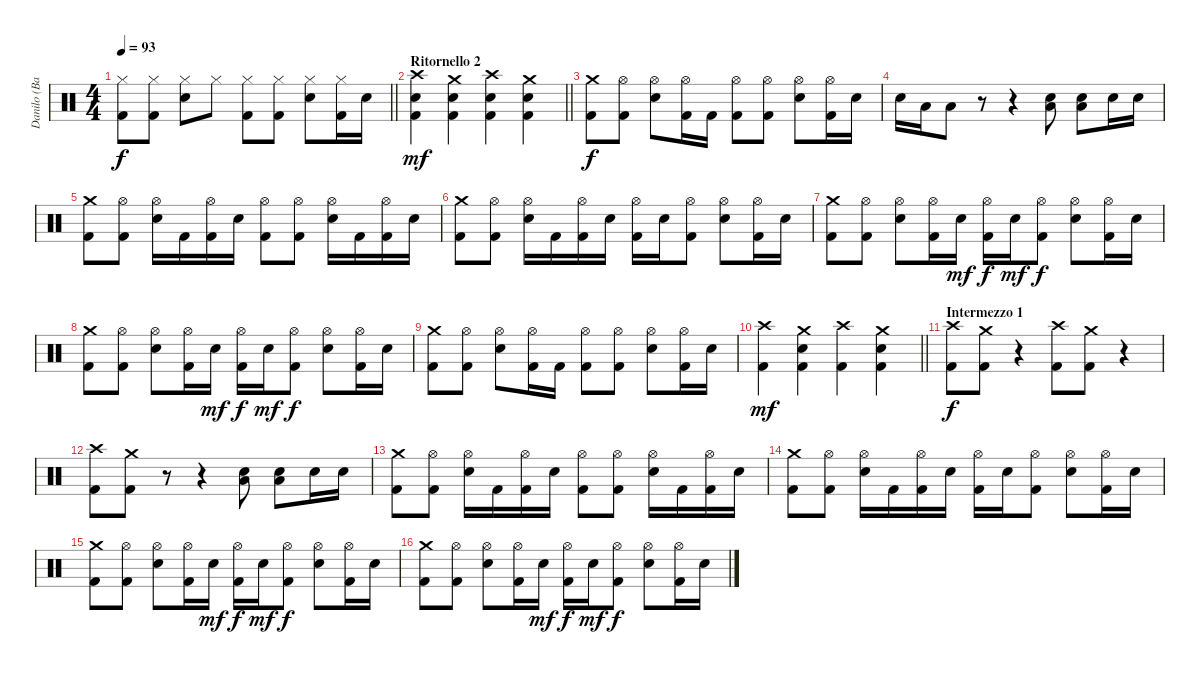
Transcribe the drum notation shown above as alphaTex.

\track ("Danilo (Batteria)" "Danilo (Ba") {instrument percussion}
\staff {score}
\articulation defaults
\ts (4 4)
\tempo 93
\clef neutral
\barLineRight lightlight
\ks c
("Hi-Hat (closed)" "Kick (hit) 2").8{dy f} ("Hi-Hat (closed)" "Kick (hit) 2").8 ("Hi-Hat (closed)" "Electric Snare (hit)").8 "Hi-Hat (closed)".8 ("Hi-Hat (closed)" "Kick (hit) 2").8 ("Hi-Hat (closed)" "Kick (hit) 2").8 ("Hi-Hat (closed)" "Electric Snare (hit)").8 ("Hi-Hat (closed)" "Kick (hit) 2").16 "Electric Snare (hit)".16 |
\section ("" "Ritornello 2")
\barLineRight lightlight
("Crash high (hit)" "Electric Snare (hit)" "Kick (hit) 2").4{dy mf} ("Crash medium (hit)" "Electric Snare (hit)" "Kick (hit) 2").4 ("Crash high (hit)" "Electric Snare (hit)" "Kick (hit) 2").4 ("Crash medium (hit)" "Electric Snare (hit)" "Kick (hit) 2").4 |
("Crash medium (hit)" "Kick (hit) 2").8{dy f} ("Hi-Hat (open)" "Kick (hit) 2").8 ("Hi-Hat (open)" "Electric Snare (hit)").8 ("Hi-Hat (open)" "Kick (hit) 2").16 "Kick (hit) 2".16 ("Hi-Hat (open)" "Kick (hit) 2").8 ("Hi-Hat (open)" "Kick (hit) 2").8 ("Hi-Hat (open)" "Electric Snare (hit)").8 ("Hi-Hat (open)" "Kick (hit) 2").16 "Electric Snare (hit)".16 |
"Electric Snare (hit)".16 "Low Tom (hit)".16 "Low Tom (hit)".8 r.8 r.4 ("Low Floor Tom (hit)" "Electric Snare (hit)").8 ("Low Floor Tom (hit)" "Electric Snare (hit)").8 "Electric Snare (hit)".16 "Electric Snare (hit)".16 |
("Crash medium (hit)" "Kick (hit) 2").8 ("Hi-Hat (open)" "Kick (hit) 2").8 ("Hi-Hat (open)" "Electric Snare (hit)").16 "Kick (hit) 2".16 ("Hi-Hat (open)" "Kick (hit) 2").16 "Electric Snare (hit)".16 ("Hi-Hat (open)" "Kick (hit) 2").8 ("Hi-Hat (open)" "Kick (hit) 2").8 ("Hi-Hat (open)" "Electric Snare (hit)").16 "Kick (hit) 2".16 ("Hi-Hat (open)" "Kick (hit) 2").16 "Electric Snare (hit)".16 |
("Crash medium (hit)" "Kick (hit) 2").8 ("Hi-Hat (open)" "Kick (hit) 2").8 ("Hi-Hat (open)" "Electric Snare (hit)").16 "Kick (hit) 2".16 ("Hi-Hat (open)" "Kick (hit) 2").16 "Electric Snare (hit)".16 ("Hi-Hat (open)" "Kick (hit) 2").16 "Electric Snare (hit)".16 ("Hi-Hat (open)" "Kick (hit) 2").8 ("Hi-Hat (open)" "Electric Snare (hit)").8 ("Hi-Hat (open)" "Kick (hit) 2").16 "Electric Snare (hit)".16 |
("Crash medium (hit)" "Kick (hit) 2").8 ("Hi-Hat (open)" "Kick (hit) 2").8 ("Hi-Hat (open)" "Electric Snare (hit)").8 ("Hi-Hat (open)" "Kick (hit) 2").16 "Electric Snare (hit)".16{dy mf} ("Hi-Hat (open)" "Kick (hit) 2").16{dy f} "Electric Snare (hit)".16{dy mf} ("Hi-Hat (open)" "Kick (hit) 2").8{dy f} ("Hi-Hat (open)" "Electric Snare (hit)").8 ("Hi-Hat (open)" "Kick (hit) 2").16 "Electric Snare (hit)".16 |
("Crash medium (hit)" "Kick (hit) 2").8 ("Hi-Hat (open)" "Kick (hit) 2").8 ("Hi-Hat (open)" "Electric Snare (hit)").8 ("Hi-Hat (open)" "Kick (hit) 2").16 "Electric Snare (hit)".16{dy mf} ("Hi-Hat (open)" "Kick (hit) 2").16{dy f} "Electric Snare (hit)".16{dy mf} ("Hi-Hat (open)" "Kick (hit) 2").8{dy f} ("Hi-Hat (open)" "Electric Snare (hit)").8 ("Hi-Hat (open)" "Kick (hit) 2").16 "Electric Snare (hit)".16 |
("Crash medium (hit)" "Kick (hit) 2").8 ("Hi-Hat (open)" "Kick (hit) 2").8 ("Hi-Hat (open)" "Electric Snare (hit)").8 ("Hi-Hat (open)" "Kick (hit) 2").16 "Kick (hit) 2".16 ("Hi-Hat (open)" "Kick (hit) 2").8 ("Hi-Hat (open)" "Kick (hit) 2").8 ("Hi-Hat (open)" "Electric Snare (hit)").8 ("Hi-Hat (open)" "Kick (hit) 2").16 "Electric Snare (hit)".16 |
\barLineRight lightlight
("Crash high (hit)" "Kick (hit) 2").4{dy mf} ("Crash medium (hit)" "Electric Snare (hit)" "Kick (hit) 2").4 ("Crash high (hit)" "Kick (hit) 2").4 ("Crash medium (hit)" "Electric Snare (hit)" "Kick (hit) 2").4 |
\section ("" "Intermezzo 1")
("Crash high (hit)" "Kick (hit) 2").8{dy f} ("Crash medium (hit)" "Kick (hit) 2").8 r.4 ("Crash high (hit)" "Kick (hit) 2").8 ("Crash medium (hit)" "Kick (hit) 2").8 r.4 |
("Crash high (hit)" "Kick (hit) 2").8 ("Crash medium (hit)" "Kick (hit) 2").8 r.8 r.4 ("Low Floor Tom (hit)" "Electric Snare (hit)").8 ("Low Floor Tom (hit)" "Electric Snare (hit)").8 "Electric Snare (hit)".16 "Electric Snare (hit)".16 |
("Crash medium (hit)" "Kick (hit) 2").8 ("Hi-Hat (open)" "Kick (hit) 2").8 ("Hi-Hat (open)" "Electric Snare (hit)").16 "Kick (hit) 2".16 ("Hi-Hat (open)" "Kick (hit) 2").16 "Electric Snare (hit)".16 ("Hi-Hat (open)" "Kick (hit) 2").8 ("Hi-Hat (open)" "Kick (hit) 2").8 ("Hi-Hat (open)" "Electric Snare (hit)").16 "Kick (hit) 2".16 ("Hi-Hat (open)" "Kick (hit) 2").16 "Electric Snare (hit)".16 |
("Crash medium (hit)" "Kick (hit) 2").8 ("Hi-Hat (open)" "Kick (hit) 2").8 ("Hi-Hat (open)" "Electric Snare (hit)").16 "Kick (hit) 2".16 ("Hi-Hat (open)" "Kick (hit) 2").16 "Electric Snare (hit)".16 ("Hi-Hat (open)" "Kick (hit) 2").16 "Electric Snare (hit)".16 ("Hi-Hat (open)" "Kick (hit) 2").8 ("Hi-Hat (open)" "Electric Snare (hit)").8 ("Hi-Hat (open)" "Kick (hit) 2").16 "Electric Snare (hit)".16 |
("Crash medium (hit)" "Kick (hit) 2").8 ("Hi-Hat (open)" "Kick (hit) 2").8 ("Hi-Hat (open)" "Electric Snare (hit)").8 ("Hi-Hat (open)" "Kick (hit) 2").16 "Electric Snare (hit)".16{dy mf} ("Hi-Hat (open)" "Kick (hit) 2").16{dy f} "Electric Snare (hit)".16{dy mf} ("Hi-Hat (open)" "Kick (hit) 2").8{dy f} ("Hi-Hat (open)" "Electric Snare (hit)").8 ("Hi-Hat (open)" "Kick (hit) 2").16 "Electric Snare (hit)".16 |
("Crash medium (hit)" "Kick (hit) 2").8 ("Hi-Hat (open)" "Kick (hit) 2").8 ("Hi-Hat (open)" "Electric Snare (hit)").8 ("Hi-Hat (open)" "Kick (hit) 2").16 "Electric Snare (hit)".16{dy mf} ("Hi-Hat (open)" "Kick (hit) 2").16{dy f} "Electric Snare (hit)".16{dy mf} ("Hi-Hat (open)" "Kick (hit) 2").8{dy f} ("Hi-Hat (open)" "Electric Snare (hit)").8 ("Hi-Hat (open)" "Kick (hit) 2").16 "Electric Snare (hit)".16
